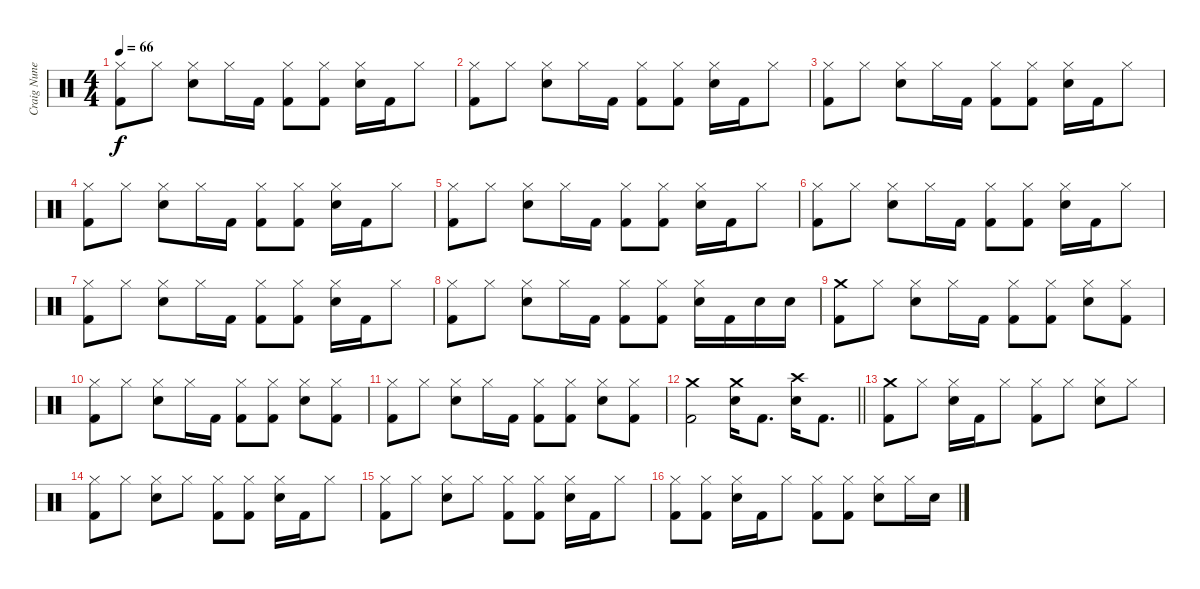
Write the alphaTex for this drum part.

\track ("Craig Nunenmacher" "Craig Nune") {instrument percussion}
\staff {score}
\articulation defaults
\ts (4 4)
\tempo 66
\clef neutral
\ks c
("Hi-Hat (closed)" "Kick (hit) 2").8{dy f} "Hi-Hat (closed)".8 ("Hi-Hat (closed)" "Snare (hit) 2").8 "Hi-Hat (closed)".16 "Kick (hit) 2".16 ("Hi-Hat (closed)" "Kick (hit) 2").8 ("Hi-Hat (closed)" "Kick (hit) 2").8 ("Hi-Hat (closed)" "Snare (hit) 2").16 "Kick (hit) 2".16 "Hi-Hat (closed)".8 |
("Hi-Hat (closed)" "Kick (hit) 2").8 "Hi-Hat (closed)".8 ("Hi-Hat (closed)" "Snare (hit) 2").8 "Hi-Hat (closed)".16 "Kick (hit) 2".16 ("Hi-Hat (closed)" "Kick (hit) 2").8 ("Hi-Hat (closed)" "Kick (hit) 2").8 ("Hi-Hat (closed)" "Snare (hit) 2").16 "Kick (hit) 2".16 "Hi-Hat (closed)".8 |
("Hi-Hat (closed)" "Kick (hit) 2").8 "Hi-Hat (closed)".8 ("Hi-Hat (closed)" "Snare (hit) 2").8 "Hi-Hat (closed)".16 "Kick (hit) 2".16 ("Hi-Hat (closed)" "Kick (hit) 2").8 ("Hi-Hat (closed)" "Kick (hit) 2").8 ("Hi-Hat (closed)" "Snare (hit) 2").16 "Kick (hit) 2".16 "Hi-Hat (closed)".8 |
("Hi-Hat (closed)" "Kick (hit) 2").8 "Hi-Hat (closed)".8 ("Hi-Hat (closed)" "Snare (hit) 2").8 "Hi-Hat (closed)".16 "Kick (hit) 2".16 ("Hi-Hat (closed)" "Kick (hit) 2").8 ("Hi-Hat (closed)" "Kick (hit) 2").8 ("Hi-Hat (closed)" "Snare (hit) 2").16 "Kick (hit) 2".16 "Hi-Hat (closed)".8 |
("Hi-Hat (closed)" "Kick (hit) 2").8 "Hi-Hat (closed)".8 ("Hi-Hat (closed)" "Snare (hit) 2").8 "Hi-Hat (closed)".16 "Kick (hit) 2".16 ("Hi-Hat (closed)" "Kick (hit) 2").8 ("Hi-Hat (closed)" "Kick (hit) 2").8 ("Hi-Hat (closed)" "Snare (hit) 2").16 "Kick (hit) 2".16 "Hi-Hat (closed)".8 |
("Hi-Hat (closed)" "Kick (hit) 2").8 "Hi-Hat (closed)".8 ("Hi-Hat (closed)" "Snare (hit) 2").8 "Hi-Hat (closed)".16 "Kick (hit) 2".16 ("Hi-Hat (closed)" "Kick (hit) 2").8 ("Hi-Hat (closed)" "Kick (hit) 2").8 ("Hi-Hat (closed)" "Snare (hit) 2").16 "Kick (hit) 2".16 "Hi-Hat (closed)".8 |
("Hi-Hat (closed)" "Kick (hit) 2").8 "Hi-Hat (closed)".8 ("Hi-Hat (closed)" "Snare (hit) 2").8 "Hi-Hat (closed)".16 "Kick (hit) 2".16 ("Hi-Hat (closed)" "Kick (hit) 2").8 ("Hi-Hat (closed)" "Kick (hit) 2").8 ("Hi-Hat (closed)" "Snare (hit) 2").16 "Kick (hit) 2".16 "Hi-Hat (closed)".8 |
("Hi-Hat (closed)" "Kick (hit) 2").8 "Hi-Hat (closed)".8 ("Hi-Hat (closed)" "Snare (hit) 2").8 "Hi-Hat (closed)".16 "Kick (hit) 2".16 ("Hi-Hat (closed)" "Kick (hit) 2").8 ("Hi-Hat (closed)" "Kick (hit) 2").8 ("Hi-Hat (closed)" "Snare (hit) 2").16 "Kick (hit) 2".16 "Snare (hit) 2".16 "Snare (hit) 2".16 |
("Crash medium (hit)" "Kick (hit) 2").8 "Hi-Hat (closed)".8 ("Hi-Hat (closed)" "Snare (hit) 2").8 "Hi-Hat (closed)".16 "Kick (hit) 2".16 ("Hi-Hat (closed)" "Kick (hit) 2").8 ("Hi-Hat (closed)" "Kick (hit) 2").8 ("Hi-Hat (closed)" "Snare (hit) 2").8 ("Hi-Hat (closed)" "Kick (hit) 2").8 |
("Hi-Hat (closed)" "Kick (hit) 2").8 "Hi-Hat (closed)".8 ("Hi-Hat (closed)" "Snare (hit) 2").8 "Hi-Hat (closed)".16 "Kick (hit) 2".16 ("Hi-Hat (closed)" "Kick (hit) 2").8 ("Hi-Hat (closed)" "Kick (hit) 2").8 ("Hi-Hat (closed)" "Snare (hit) 2").8 ("Hi-Hat (closed)" "Kick (hit) 2").8 |
("Hi-Hat (closed)" "Kick (hit) 2").8 "Hi-Hat (closed)".8 ("Hi-Hat (closed)" "Snare (hit) 2").8 "Hi-Hat (closed)".16 "Kick (hit) 2".16 ("Hi-Hat (closed)" "Kick (hit) 2").8 ("Hi-Hat (closed)" "Kick (hit) 2").8 ("Hi-Hat (closed)" "Snare (hit) 2").8 ("Hi-Hat (closed)" "Kick (hit) 2").8 |
\barLineRight lightlight
("Crash medium (hit)" "Kick (hit) 2").2 ("Crash medium (hit)" "Snare (hit) 2").16 "Kick (hit) 2".8{d} ("Crash high (hit)" "Snare (hit) 2").16 "Kick (hit) 2".8{d} |
("Crash medium (hit)" "Kick (hit) 2").8 "Hi-Hat (closed)".8 ("Hi-Hat (closed)" "Snare (hit) 2").16 "Kick (hit) 2".16 "Hi-Hat (closed)".8 ("Hi-Hat (closed)" "Kick (hit) 2").8 "Hi-Hat (closed)".8 ("Hi-Hat (closed)" "Snare (hit) 2").8 "Hi-Hat (closed)".8 |
("Hi-Hat (closed)" "Kick (hit) 2").8 "Hi-Hat (closed)".8 ("Hi-Hat (closed)" "Snare (hit) 2").8 "Hi-Hat (closed)".8 ("Hi-Hat (closed)" "Kick (hit) 2").8 ("Hi-Hat (closed)" "Kick (hit) 2").8 ("Hi-Hat (closed)" "Snare (hit) 2").16 "Kick (hit) 2".16 "Hi-Hat (closed)".8 |
("Hi-Hat (closed)" "Kick (hit) 2").8 "Hi-Hat (closed)".8 ("Hi-Hat (closed)" "Snare (hit) 2").8 "Hi-Hat (closed)".8 ("Hi-Hat (closed)" "Kick (hit) 2").8 ("Hi-Hat (closed)" "Kick (hit) 2").8 ("Hi-Hat (closed)" "Snare (hit) 2").16 "Kick (hit) 2".16 "Hi-Hat (closed)".8 |
("Hi-Hat (closed)" "Kick (hit) 2").8 ("Hi-Hat (closed)" "Kick (hit) 2").8 ("Hi-Hat (closed)" "Snare (hit) 2").16 "Kick (hit) 2".16 "Hi-Hat (closed)".8 ("Hi-Hat (closed)" "Kick (hit) 2").8 ("Hi-Hat (closed)" "Kick (hit) 2").8 ("Hi-Hat (closed)" "Snare (hit) 2").8 "Hi-Hat (closed)".16 "Snare (hit) 2".16
